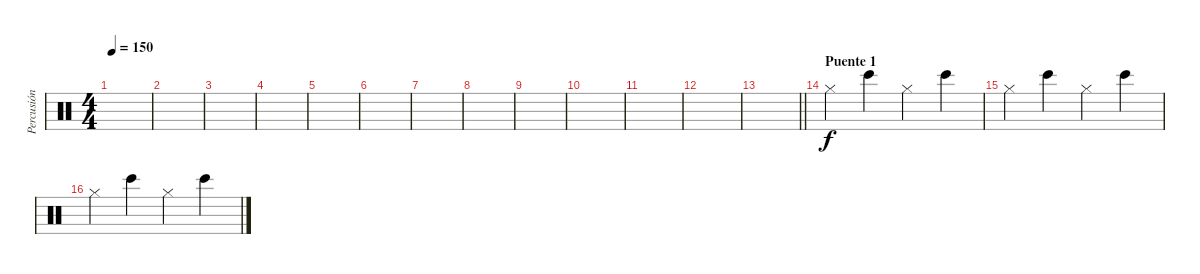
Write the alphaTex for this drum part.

\track ("Percusión" "Percusión") {instrument percussion}
\staff {score}
\articulation defaults
\ts (4 4)
\tempo 150
\clef neutral
\ks c
|
|
|
|
|
|
|
|
|
|
|
|
\barLineRight lightlight
|
\section ("" "Puente 1")
"Hi-Hat (closed)".4{dy f} "Bongo High (hit)".4 "Hi-Hat (closed)".4 "Bongo High (hit)".4 |
"Hi-Hat (closed)".4 "Bongo High (hit)".4 "Hi-Hat (closed)".4 "Bongo High (hit)".4 |
"Hi-Hat (closed)".4 "Bongo High (hit)".4 "Hi-Hat (closed)".4 "Bongo High (hit)".4
